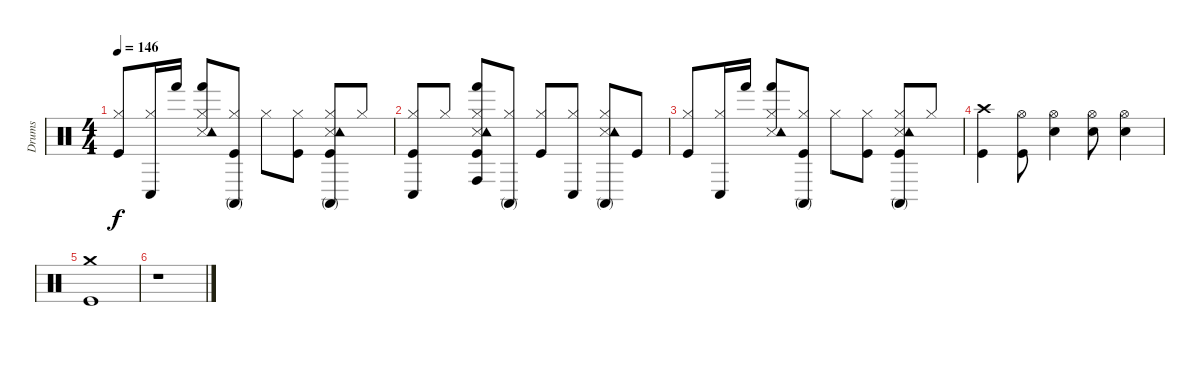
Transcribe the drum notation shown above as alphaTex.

\track ("Drums" "Drums") {instrument percussion}
\staff {score}
\articulation defaults
\ts (4 4)
\tempo 146
\clef neutral
\ks c
("Kick (hit)" "Hi-Hat (closed)").8{dy f} ("Hi-Hat (closed)" "Conga low (hit)").16 "Hand (hit)".16 ("Snare (side stick) 3" "Hi-Hat (closed)" "Tambourine (hit)" "Hand (hit)").8 ("Kick (hit)" "Hi-Hat (closed)" "Conga high (mute)").8 "Hi-Hat (closed)".8 ("Kick (hit)" "Hi-Hat (closed)").8 ("Kick (hit)" "Snare (side stick) 3" "Hi-Hat (closed)" "Tambourine (hit)" "Conga high (mute)").8 "Hi-Hat (closed)".8 |
("Kick (hit)" "Hi-Hat (closed)" "Conga low (hit)").8 "Hi-Hat (closed)".8 ("Kick (hit)" "Snare (side stick) 3" "Hi-Hat (closed)" "Tambourine (hit)" "Hand (hit)" "Conga high (hit)").8 ("Hi-Hat (closed)" "Conga high (mute)").8 ("Kick (hit)" "Hi-Hat (closed)").8 ("Hi-Hat (closed)" "Conga low (hit)").8 ("Snare (side stick) 3" "Hi-Hat (closed)" "Tambourine (hit)" "Conga high (mute)").8 "Kick (hit)".8 |
("Kick (hit)" "Hi-Hat (closed)").8 ("Hi-Hat (closed)" "Conga low (hit)").16 "Hand (hit)".16 ("Snare (side stick) 3" "Hi-Hat (closed)" "Tambourine (hit)" "Hand (hit)").8 ("Kick (hit)" "Hi-Hat (closed)" "Conga high (mute)").8 "Hi-Hat (closed)".8 ("Kick (hit)" "Hi-Hat (closed)").8 ("Kick (hit)" "Snare (side stick) 3" "Hi-Hat (closed)" "Tambourine (hit)" "Conga high (mute)").8 "Hi-Hat (closed)".8 |
("Crash high (hit)" "Kick (hit)").4 ("Kick (hit)" "Hi-Hat (open)").8 ("Electric Snare (hit)" "Hi-Hat (open)").4 ("Electric Snare (hit)" "Hi-Hat (open)").8 ("Electric Snare (hit)" "Hi-Hat (open)").4 |
("Crash medium (hit)" "Kick (hit)").1 |
r.1
